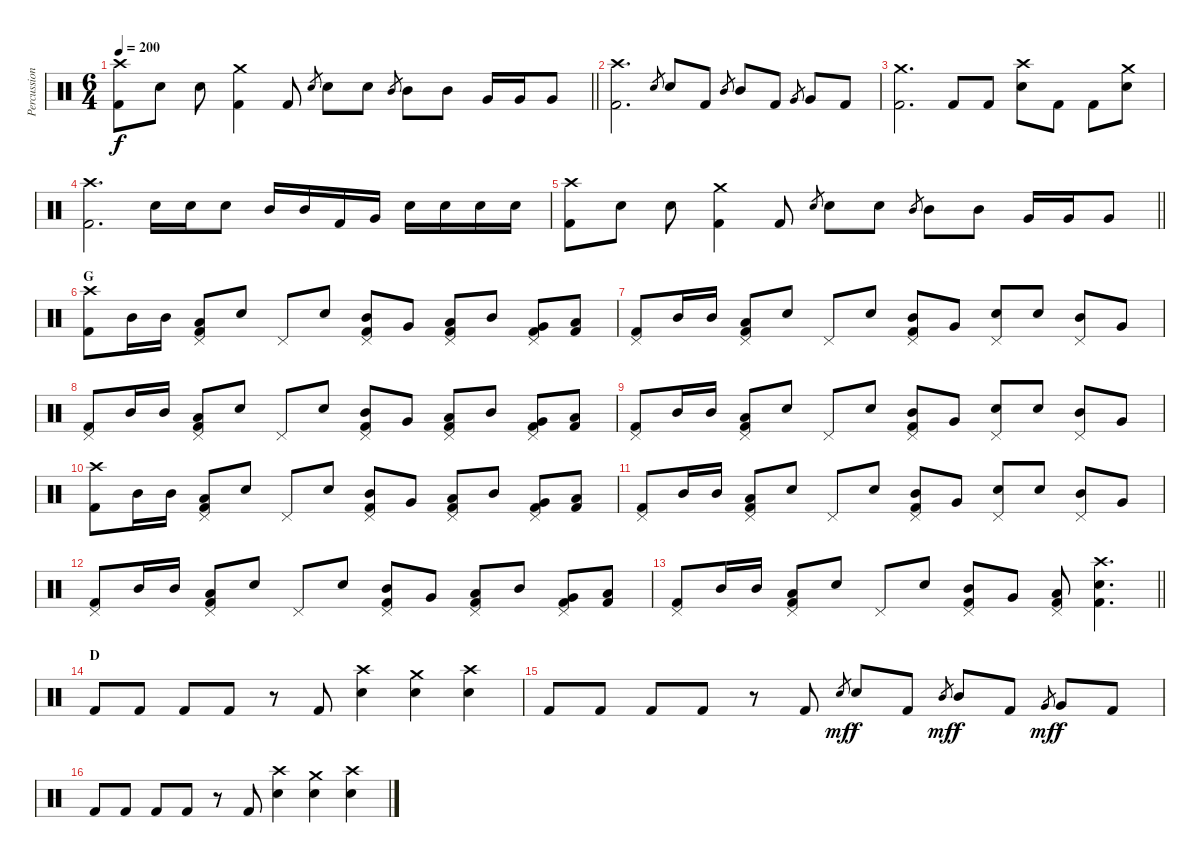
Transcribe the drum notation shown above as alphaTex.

\track ("Percussion" "Percussion") {instrument percussion}
\staff {score}
\articulation defaults
\ts (6 4)
\tempo 200
\clef neutral
\barLineRight lightlight
\ks c
("Crash high (hit)" "Kick (hit) 2").8{dy f} "Electric Snare (hit)".8 "Electric Snare (hit)".8 ("Crash medium (hit)" "Kick (hit) 2").4 "Kick (hit) 2".8 "Electric Snare (hit)".8{gr} "Electric Snare (hit)".8 "Electric Snare (hit)".8 "Mid Tom (hit)".8{gr} "Mid Tom (hit)".8 "Mid Tom (hit)".8 "Very Low Tom (hit)".16 "Very Low Tom (hit)".16 "Very Low Tom (hit)".8 |
("Crash high (hit)" "Kick (hit) 2").2{d} "Electric Snare (hit)".8{gr} "Electric Snare (hit)".8 "Kick (hit) 2".8 "Mid Tom (hit)".8{gr} "Mid Tom (hit)".8 "Kick (hit) 2".8 "Very Low Tom (hit)".8{gr} "Very Low Tom (hit)".8 "Kick (hit) 2".8 |
("Crash medium (hit)" "Kick (hit) 2").2{d} "Kick (hit) 2".8 "Kick (hit) 2".8 ("Crash high (hit)" "Electric Snare (hit)").8 "Kick (hit) 2".8 "Kick (hit) 2".8 ("Crash medium (hit)" "Electric Snare (hit)").8 |
("Crash high (hit)" "Kick (hit) 2").2{d} "Electric Snare (hit)".16 "Electric Snare (hit)".16 "Electric Snare (hit)".8 "Mid Tom (hit)".16 "Mid Tom (hit)".16 "Kick (hit) 2".16 "Very Low Tom (hit)".16 "Electric Snare (hit)".16 "Electric Snare (hit)".16 "Electric Snare (hit)".16 "Electric Snare (hit)".16 |
\barLineRight lightlight
("Crash high (hit)" "Kick (hit) 2").8 "Electric Snare (hit)".8 "Electric Snare (hit)".8 ("Crash medium (hit)" "Kick (hit) 2").4 "Kick (hit) 2".8 "Electric Snare (hit)".8{gr} "Electric Snare (hit)".8 "Electric Snare (hit)".8 "Mid Tom (hit)".8{gr} "Mid Tom (hit)".8 "Mid Tom (hit)".8 "Very Low Tom (hit)".16 "Very Low Tom (hit)".16 "Very Low Tom (hit)".8 |
\section ("" "G")
("Crash high (hit)" "Kick (hit) 2").8 "Mid Tom (hit)".16 "Mid Tom (hit)".16 ("Pedal Hi-Hat (hit)" "Low Floor Tom (hit)" "Kick (hit) 2").8 "Electric Snare (hit)".8 "Pedal Hi-Hat (hit)".8 "Electric Snare (hit)".8 ("Pedal Hi-Hat (hit)" "Mid Tom (hit)" "Kick (hit) 2").8 "Very Low Tom (hit)".8 ("Pedal Hi-Hat (hit)" "Low Floor Tom (hit)" "Kick (hit) 2").8 "Mid Tom (hit)".8 ("Pedal Hi-Hat (hit)" "Very Low Tom (hit)" "Kick (hit) 2").8 ("Low Floor Tom (hit)" "Kick (hit) 2").8 |
("Pedal Hi-Hat (hit)" "Kick (hit) 2").8 "Mid Tom (hit)".16 "Mid Tom (hit)".16 ("Pedal Hi-Hat (hit)" "Low Floor Tom (hit)" "Kick (hit) 2").8 "Electric Snare (hit)".8 "Pedal Hi-Hat (hit)".8 "Electric Snare (hit)".8 ("Pedal Hi-Hat (hit)" "Mid Tom (hit)" "Kick (hit) 2").8 "Very Low Tom (hit)".8 ("Pedal Hi-Hat (hit)" "Electric Snare (hit)").8 "Electric Snare (hit)".8 ("Pedal Hi-Hat (hit)" "Mid Tom (hit)").8 "Very Low Tom (hit)".8 |
("Pedal Hi-Hat (hit)" "Kick (hit) 2").8 "Mid Tom (hit)".16 "Mid Tom (hit)".16 ("Pedal Hi-Hat (hit)" "Low Floor Tom (hit)" "Kick (hit) 2").8 "Electric Snare (hit)".8 "Pedal Hi-Hat (hit)".8 "Electric Snare (hit)".8 ("Pedal Hi-Hat (hit)" "Mid Tom (hit)" "Kick (hit) 2").8 "Very Low Tom (hit)".8 ("Pedal Hi-Hat (hit)" "Low Floor Tom (hit)" "Kick (hit) 2").8 "Mid Tom (hit)".8 ("Pedal Hi-Hat (hit)" "Very Low Tom (hit)" "Kick (hit) 2").8 ("Low Floor Tom (hit)" "Kick (hit) 2").8 |
("Pedal Hi-Hat (hit)" "Kick (hit) 2").8 "Mid Tom (hit)".16 "Mid Tom (hit)".16 ("Pedal Hi-Hat (hit)" "Low Floor Tom (hit)" "Kick (hit) 2").8 "Electric Snare (hit)".8 "Pedal Hi-Hat (hit)".8 "Electric Snare (hit)".8 ("Pedal Hi-Hat (hit)" "Mid Tom (hit)" "Kick (hit) 2").8 "Very Low Tom (hit)".8 ("Pedal Hi-Hat (hit)" "Electric Snare (hit)").8 "Electric Snare (hit)".8 ("Pedal Hi-Hat (hit)" "Mid Tom (hit)").8 "Very Low Tom (hit)".8 |
("Crash high (hit)" "Kick (hit) 2").8 "Mid Tom (hit)".16 "Mid Tom (hit)".16 ("Pedal Hi-Hat (hit)" "Low Floor Tom (hit)" "Kick (hit) 2").8 "Electric Snare (hit)".8 "Pedal Hi-Hat (hit)".8 "Electric Snare (hit)".8 ("Pedal Hi-Hat (hit)" "Mid Tom (hit)" "Kick (hit) 2").8 "Very Low Tom (hit)".8 ("Pedal Hi-Hat (hit)" "Low Floor Tom (hit)" "Kick (hit) 2").8 "Mid Tom (hit)".8 ("Pedal Hi-Hat (hit)" "Very Low Tom (hit)" "Kick (hit) 2").8 ("Low Floor Tom (hit)" "Kick (hit) 2").8 |
("Pedal Hi-Hat (hit)" "Kick (hit) 2").8 "Mid Tom (hit)".16 "Mid Tom (hit)".16 ("Pedal Hi-Hat (hit)" "Low Floor Tom (hit)" "Kick (hit) 2").8 "Electric Snare (hit)".8 "Pedal Hi-Hat (hit)".8 "Electric Snare (hit)".8 ("Pedal Hi-Hat (hit)" "Mid Tom (hit)" "Kick (hit) 2").8 "Very Low Tom (hit)".8 ("Pedal Hi-Hat (hit)" "Electric Snare (hit)").8 "Electric Snare (hit)".8 ("Pedal Hi-Hat (hit)" "Mid Tom (hit)").8 "Very Low Tom (hit)".8 |
("Pedal Hi-Hat (hit)" "Kick (hit) 2").8 "Mid Tom (hit)".16 "Mid Tom (hit)".16 ("Pedal Hi-Hat (hit)" "Low Floor Tom (hit)" "Kick (hit) 2").8 "Electric Snare (hit)".8 "Pedal Hi-Hat (hit)".8 "Electric Snare (hit)".8 ("Pedal Hi-Hat (hit)" "Mid Tom (hit)" "Kick (hit) 2").8 "Very Low Tom (hit)".8 ("Pedal Hi-Hat (hit)" "Low Floor Tom (hit)" "Kick (hit) 2").8 "Mid Tom (hit)".8 ("Pedal Hi-Hat (hit)" "Very Low Tom (hit)" "Kick (hit) 2").8 ("Low Floor Tom (hit)" "Kick (hit) 2").8 |
\barLineRight lightlight
("Pedal Hi-Hat (hit)" "Kick (hit) 2").8 "Mid Tom (hit)".16 "Mid Tom (hit)".16 ("Pedal Hi-Hat (hit)" "Low Floor Tom (hit)" "Kick (hit) 2").8 "Electric Snare (hit)".8 "Pedal Hi-Hat (hit)".8 "Electric Snare (hit)".8 ("Pedal Hi-Hat (hit)" "Mid Tom (hit)" "Kick (hit) 2").8 "Very Low Tom (hit)".8 ("Pedal Hi-Hat (hit)" "Low Floor Tom (hit)" "Kick (hit) 2").8 ("Crash high (hit)" "Electric Snare (hit)" "Kick (hit) 2").4{d} |
\section ("" "D")
"Kick (hit) 2".8 "Kick (hit) 2".8 "Kick (hit) 2".8 "Kick (hit) 2".8 r.8 "Kick (hit) 2".8 ("Crash high (hit)" "Electric Snare (hit)").4 ("Crash medium (hit)" "Electric Snare (hit)").4 ("Crash high (hit)" "Electric Snare (hit)").4 |
"Kick (hit) 2".8 "Kick (hit) 2".8 "Kick (hit) 2".8 "Kick (hit) 2".8 r.8 "Kick (hit) 2".8 "Electric Snare (hit)".8{gr dy mf} "Electric Snare (hit)".8{dy f} "Kick (hit) 2".8 "Mid Tom (hit)".8{gr dy mf} "Mid Tom (hit)".8{dy f} "Kick (hit) 2".8 "Very Low Tom (hit)".8{gr dy mf} "Very Low Tom (hit)".8{dy f} "Kick (hit) 2".8 |
"Kick (hit) 2".8 "Kick (hit) 2".8 "Kick (hit) 2".8 "Kick (hit) 2".8 r.8 "Kick (hit) 2".8 ("Crash high (hit)" "Electric Snare (hit)").4 ("Crash medium (hit)" "Electric Snare (hit)").4 ("Crash high (hit)" "Electric Snare (hit)").4
